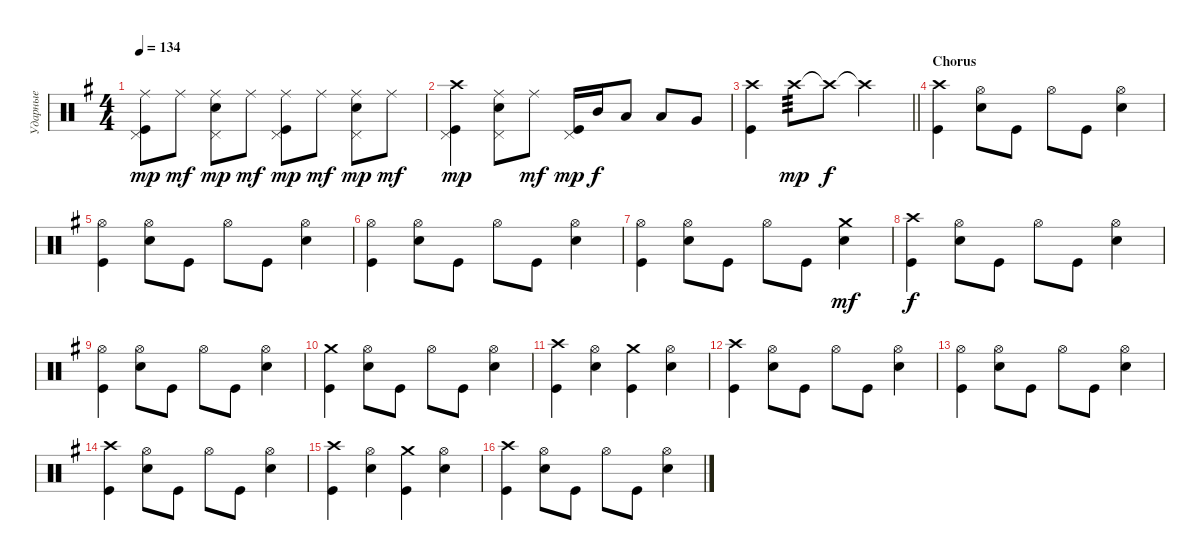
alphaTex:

\track ("Ударные" "Ударные") {instrument percussion}
\staff {score}
\articulation defaults
\ts (4 4)
\tempo 134
\clef neutral
\ks eminor
("Ride (middle)" "Pedal Hi-Hat (hit)" "Kick (hit)").8{dy mp} "Ride (middle)".8{dy mf} ("Ride (middle)" "Pedal Hi-Hat (hit)" "Snare (hit) 2").8{dy mp} "Ride (middle)".8{dy mf} ("Ride (middle)" "Pedal Hi-Hat (hit)" "Kick (hit)").8{dy mp} "Ride (middle)".8{dy mf} ("Ride (middle)" "Pedal Hi-Hat (hit)" "Snare (hit) 2").8{dy mp} "Ride (middle)".8{dy mf} |
("Crash high (hit)" "Pedal Hi-Hat (hit)" "Kick (hit)").4{dy mp} ("Ride (middle)" "Pedal Hi-Hat (hit)" "Snare (hit) 2").8 "Ride (middle)".8{dy mf} ("Kick (hit)" "Pedal Hi-Hat (hit)").16{dy mp} "Mid Tom (hit)".16{dy f} "Low Tom (hit)".8 "Low Tom (hit)".8 "Very Low Tom (hit)".8 |
\barLineRight lightlight
("Kick (hit)" "Crash high (hit)").4 "Crash high (hit)".8{tp 3 dy mp volume 3} "Crash high (hit)"{t}.8{dy f volume 14} "Crash high (hit)"{t}.2 |
\section ("" "Chorus")
("Kick (hit)" "Crash high (hit)").4{volume 14} ("Snare (hit) 2" "Hi-Hat (open)").8 "Kick (hit)".8 "Hi-Hat (open)".8 "Kick (hit)".8 ("Snare (hit) 2" "Hi-Hat (open)").4 |
("Kick (hit)" "Hi-Hat (open)").4 ("Snare (hit) 2" "Hi-Hat (open)").8 "Kick (hit)".8 "Hi-Hat (open)".8 "Kick (hit)".8 ("Snare (hit) 2" "Hi-Hat (open)").4 |
("Kick (hit)" "Hi-Hat (open)").4 ("Snare (hit) 2" "Hi-Hat (open)").8 "Kick (hit)".8 "Hi-Hat (open)".8 "Kick (hit)".8 ("Snare (hit) 2" "Hi-Hat (open)").4 |
("Kick (hit)" "Hi-Hat (open)").4 ("Snare (hit) 2" "Hi-Hat (open)").8 "Kick (hit)".8 "Hi-Hat (open)".8 "Kick (hit)".8 ("Snare (hit) 2" "Crash medium (hit)").4{dy mf} |
("Kick (hit)" "Crash high (hit)").4{dy f} ("Snare (hit) 2" "Hi-Hat (open)").8 "Kick (hit)".8 "Hi-Hat (open)".8 "Kick (hit)".8 ("Snare (hit) 2" "Hi-Hat (open)").4 |
("Kick (hit)" "Hi-Hat (open)").4 ("Snare (hit) 2" "Hi-Hat (open)").8 "Kick (hit)".8 "Hi-Hat (open)".8 "Kick (hit)".8 ("Snare (hit) 2" "Hi-Hat (open)").4 |
("Kick (hit)" "Crash medium (hit)").4 ("Snare (hit) 2" "Hi-Hat (open)").8 "Kick (hit)".8 "Hi-Hat (open)".8 "Kick (hit)".8 ("Snare (hit) 2" "Hi-Hat (open)").4 |
("Kick (hit)" "Crash high (hit)").4 ("Snare (hit) 2" "Hi-Hat (open)").4 ("Crash medium (hit)" "Kick (hit)").4 ("Snare (hit) 2" "Hi-Hat (open)").4 |
("Kick (hit)" "Crash high (hit)").4 ("Snare (hit) 2" "Hi-Hat (open)").8 "Kick (hit)".8 "Hi-Hat (open)".8 "Kick (hit)".8 ("Snare (hit) 2" "Hi-Hat (open)").4 |
("Kick (hit)" "Hi-Hat (open)").4 ("Snare (hit) 2" "Hi-Hat (open)").8 "Kick (hit)".8 "Hi-Hat (open)".8 "Kick (hit)".8 ("Snare (hit) 2" "Hi-Hat (open)").4 |
("Kick (hit)" "Crash high (hit)").4 ("Snare (hit) 2" "Hi-Hat (open)").8 "Kick (hit)".8 "Hi-Hat (open)".8 "Kick (hit)".8 ("Snare (hit) 2" "Hi-Hat (open)").4 |
("Kick (hit)" "Crash high (hit)").4 ("Snare (hit) 2" "Hi-Hat (open)").4 ("Crash medium (hit)" "Kick (hit)").4 ("Snare (hit) 2" "Hi-Hat (open)").4 |
("Kick (hit)" "Crash high (hit)").4 ("Snare (hit) 2" "Hi-Hat (open)").8 "Kick (hit)".8 "Hi-Hat (open)".8 "Kick (hit)".8 ("Snare (hit) 2" "Hi-Hat (open)").4
